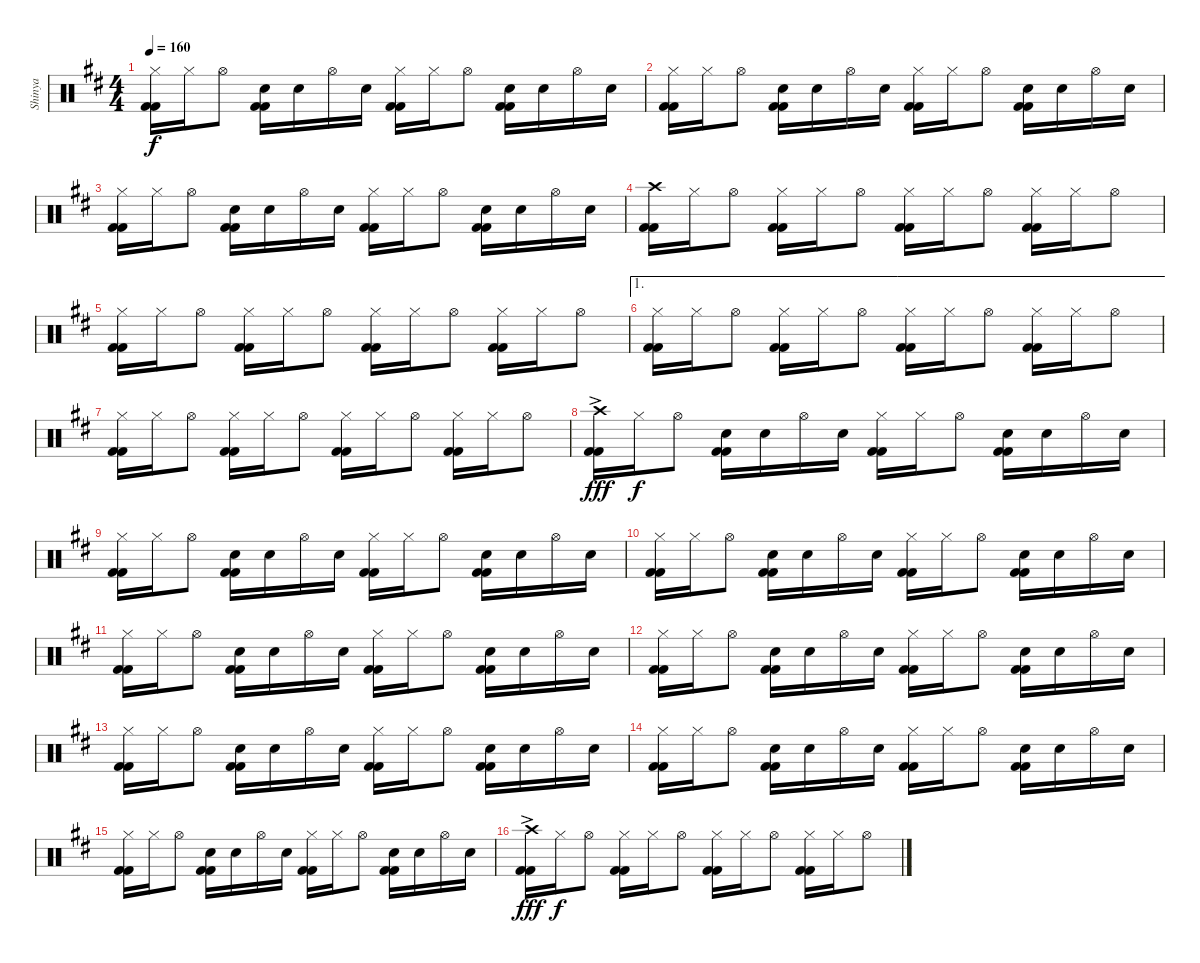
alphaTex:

\track ("Shinya " "Shinya ") {instrument percussion}
\staff {score}
\articulation defaults
\ts (4 4)
\tempo 160
\clef neutral
\ks d
("Hi-Hat (closed)" "Kick (hit) 2" "Kick (hit) 2").16{dy f} "Hi-Hat (closed)".16 "Hi-Hat (open)".8 ("Snare (hit) 2" "Kick (hit) 2" "Kick (hit) 2").16 "Snare (hit) 2".16 "Hi-Hat (open)".16 "Snare (hit) 2".16 ("Hi-Hat (closed)" "Kick (hit) 2" "Kick (hit) 2").16 "Hi-Hat (closed)".16 "Hi-Hat (open)".8 ("Snare (hit) 2" "Kick (hit) 2" "Kick (hit) 2").16 "Snare (hit) 2".16 "Hi-Hat (open)".16 "Snare (hit) 2".16 |
("Hi-Hat (closed)" "Kick (hit) 2" "Kick (hit) 2").16 "Hi-Hat (closed)".16 "Hi-Hat (open)".8 ("Snare (hit) 2" "Kick (hit) 2" "Kick (hit) 2").16 "Snare (hit) 2".16 "Hi-Hat (open)".16 "Snare (hit) 2".16 ("Hi-Hat (closed)" "Kick (hit) 2" "Kick (hit) 2").16 "Hi-Hat (closed)".16 "Hi-Hat (open)".8 ("Snare (hit) 2" "Kick (hit) 2" "Kick (hit) 2").16 "Snare (hit) 2".16 "Hi-Hat (open)".16 "Snare (hit) 2".16 |
("Hi-Hat (closed)" "Kick (hit) 2" "Kick (hit) 2").16 "Hi-Hat (closed)".16 "Hi-Hat (open)".8 ("Snare (hit) 2" "Kick (hit) 2" "Kick (hit) 2").16 "Snare (hit) 2".16 "Hi-Hat (open)".16 "Snare (hit) 2".16 ("Hi-Hat (closed)" "Kick (hit) 2" "Kick (hit) 2").16 "Hi-Hat (closed)".16 "Hi-Hat (open)".8 ("Snare (hit) 2" "Kick (hit) 2" "Kick (hit) 2").16 "Snare (hit) 2".16 "Hi-Hat (open)".16 "Snare (hit) 2".16 |
("Crash high (hit)" "Kick (hit) 2" "Kick (hit) 2").16 "Hi-Hat (closed)".16 "Hi-Hat (open)".8 ("Hi-Hat (closed)" "Kick (hit) 2" "Kick (hit) 2").16 "Hi-Hat (closed)".16 "Hi-Hat (open)".8 ("Hi-Hat (closed)" "Kick (hit) 2" "Kick (hit) 2").16 "Hi-Hat (closed)".16 "Hi-Hat (open)".8 ("Hi-Hat (closed)" "Kick (hit) 2" "Kick (hit) 2").16 "Hi-Hat (closed)".16 "Hi-Hat (open)".8 |
("Hi-Hat (closed)" "Kick (hit) 2" "Kick (hit) 2").16 "Hi-Hat (closed)".16 "Hi-Hat (open)".8 ("Hi-Hat (closed)" "Kick (hit) 2" "Kick (hit) 2").16 "Hi-Hat (closed)".16 "Hi-Hat (open)".8 ("Hi-Hat (closed)" "Kick (hit) 2" "Kick (hit) 2").16 "Hi-Hat (closed)".16 "Hi-Hat (open)".8 ("Hi-Hat (closed)" "Kick (hit) 2" "Kick (hit) 2").16 "Hi-Hat (closed)".16 "Hi-Hat (open)".8 |
\ae 1
("Hi-Hat (closed)" "Kick (hit) 2" "Kick (hit) 2").16 "Hi-Hat (closed)".16 "Hi-Hat (open)".8 ("Hi-Hat (closed)" "Kick (hit) 2" "Kick (hit) 2").16 "Hi-Hat (closed)".16 "Hi-Hat (open)".8 ("Hi-Hat (closed)" "Kick (hit) 2" "Kick (hit) 2").16 "Hi-Hat (closed)".16 "Hi-Hat (open)".8 ("Hi-Hat (closed)" "Kick (hit) 2" "Kick (hit) 2").16 "Hi-Hat (closed)".16 "Hi-Hat (open)".8 |
("Hi-Hat (closed)" "Kick (hit) 2" "Kick (hit) 2").16 "Hi-Hat (closed)".16 "Hi-Hat (open)".8 ("Hi-Hat (closed)" "Kick (hit) 2" "Kick (hit) 2").16 "Hi-Hat (closed)".16 "Hi-Hat (open)".8 ("Hi-Hat (closed)" "Kick (hit) 2" "Kick (hit) 2").16 "Hi-Hat (closed)".16 "Hi-Hat (open)".8 ("Hi-Hat (closed)" "Kick (hit) 2" "Kick (hit) 2").16 "Hi-Hat (closed)".16 "Hi-Hat (open)".8 |
("Crash high (hit)"{ac} "Kick (hit) 2" "Kick (hit) 2").16{dy fff} "Hi-Hat (closed)".16{dy f} "Hi-Hat (open)".8 ("Snare (hit) 2" "Kick (hit) 2" "Kick (hit) 2").16 "Snare (hit) 2".16 "Hi-Hat (open)".16 "Snare (hit) 2".16 ("Hi-Hat (closed)" "Kick (hit) 2" "Kick (hit) 2").16 "Hi-Hat (closed)".16 "Hi-Hat (open)".8 ("Snare (hit) 2" "Kick (hit) 2" "Kick (hit) 2").16 "Snare (hit) 2".16 "Hi-Hat (open)".16 "Snare (hit) 2".16 |
("Hi-Hat (closed)" "Kick (hit) 2" "Kick (hit) 2").16 "Hi-Hat (closed)".16 "Hi-Hat (open)".8 ("Snare (hit) 2" "Kick (hit) 2" "Kick (hit) 2").16 "Snare (hit) 2".16 "Hi-Hat (open)".16 "Snare (hit) 2".16 ("Hi-Hat (closed)" "Kick (hit) 2" "Kick (hit) 2").16 "Hi-Hat (closed)".16 "Hi-Hat (open)".8 ("Snare (hit) 2" "Kick (hit) 2" "Kick (hit) 2").16 "Snare (hit) 2".16 "Hi-Hat (open)".16 "Snare (hit) 2".16 |
("Hi-Hat (closed)" "Kick (hit) 2" "Kick (hit) 2").16 "Hi-Hat (closed)".16 "Hi-Hat (open)".8 ("Snare (hit) 2" "Kick (hit) 2" "Kick (hit) 2").16 "Snare (hit) 2".16 "Hi-Hat (open)".16 "Snare (hit) 2".16 ("Hi-Hat (closed)" "Kick (hit) 2" "Kick (hit) 2").16 "Hi-Hat (closed)".16 "Hi-Hat (open)".8 ("Snare (hit) 2" "Kick (hit) 2" "Kick (hit) 2").16 "Snare (hit) 2".16 "Hi-Hat (open)".16 "Snare (hit) 2".16 |
("Hi-Hat (closed)" "Kick (hit) 2" "Kick (hit) 2").16 "Hi-Hat (closed)".16 "Hi-Hat (open)".8 ("Snare (hit) 2" "Kick (hit) 2" "Kick (hit) 2").16 "Snare (hit) 2".16 "Hi-Hat (open)".16 "Snare (hit) 2".16 ("Hi-Hat (closed)" "Kick (hit) 2" "Kick (hit) 2").16 "Hi-Hat (closed)".16 "Hi-Hat (open)".8 ("Snare (hit) 2" "Kick (hit) 2" "Kick (hit) 2").16 "Snare (hit) 2".16 "Hi-Hat (open)".16 "Snare (hit) 2".16 |
("Hi-Hat (closed)" "Kick (hit) 2" "Kick (hit) 2").16 "Hi-Hat (closed)".16 "Hi-Hat (open)".8 ("Snare (hit) 2" "Kick (hit) 2" "Kick (hit) 2").16 "Snare (hit) 2".16 "Hi-Hat (open)".16 "Snare (hit) 2".16 ("Hi-Hat (closed)" "Kick (hit) 2" "Kick (hit) 2").16 "Hi-Hat (closed)".16 "Hi-Hat (open)".8 ("Snare (hit) 2" "Kick (hit) 2" "Kick (hit) 2").16 "Snare (hit) 2".16 "Hi-Hat (open)".16 "Snare (hit) 2".16 |
("Hi-Hat (closed)" "Kick (hit) 2" "Kick (hit) 2").16 "Hi-Hat (closed)".16 "Hi-Hat (open)".8 ("Snare (hit) 2" "Kick (hit) 2" "Kick (hit) 2").16 "Snare (hit) 2".16 "Hi-Hat (open)".16 "Snare (hit) 2".16 ("Hi-Hat (closed)" "Kick (hit) 2" "Kick (hit) 2").16 "Hi-Hat (closed)".16 "Hi-Hat (open)".8 ("Snare (hit) 2" "Kick (hit) 2" "Kick (hit) 2").16 "Snare (hit) 2".16 "Hi-Hat (open)".16 "Snare (hit) 2".16 |
("Hi-Hat (closed)" "Kick (hit) 2" "Kick (hit) 2").16 "Hi-Hat (closed)".16 "Hi-Hat (open)".8 ("Snare (hit) 2" "Kick (hit) 2" "Kick (hit) 2").16 "Snare (hit) 2".16 "Hi-Hat (open)".16 "Snare (hit) 2".16 ("Hi-Hat (closed)" "Kick (hit) 2" "Kick (hit) 2").16 "Hi-Hat (closed)".16 "Hi-Hat (open)".8 ("Snare (hit) 2" "Kick (hit) 2" "Kick (hit) 2").16 "Snare (hit) 2".16 "Hi-Hat (open)".16 "Snare (hit) 2".16 |
("Hi-Hat (closed)" "Kick (hit) 2" "Kick (hit) 2").16 "Hi-Hat (closed)".16 "Hi-Hat (open)".8 ("Snare (hit) 2" "Kick (hit) 2" "Kick (hit) 2").16 "Snare (hit) 2".16 "Hi-Hat (open)".16 "Snare (hit) 2".16 ("Hi-Hat (closed)" "Kick (hit) 2" "Kick (hit) 2").16 "Hi-Hat (closed)".16 "Hi-Hat (open)".8 ("Snare (hit) 2" "Kick (hit) 2" "Kick (hit) 2").16 "Snare (hit) 2".16 "Hi-Hat (open)".16 "Snare (hit) 2".16 |
("Crash high (hit)"{ac} "Kick (hit) 2" "Kick (hit) 2").16{dy fff} "Hi-Hat (closed)".16{dy f} "Hi-Hat (open)".8 ("Hi-Hat (closed)" "Kick (hit) 2" "Kick (hit) 2").16 "Hi-Hat (closed)".16 "Hi-Hat (open)".8 ("Hi-Hat (closed)" "Kick (hit) 2" "Kick (hit) 2").16 "Hi-Hat (closed)".16 "Hi-Hat (open)".8 ("Hi-Hat (closed)" "Kick (hit) 2" "Kick (hit) 2").16 "Hi-Hat (closed)".16 "Hi-Hat (open)".8
